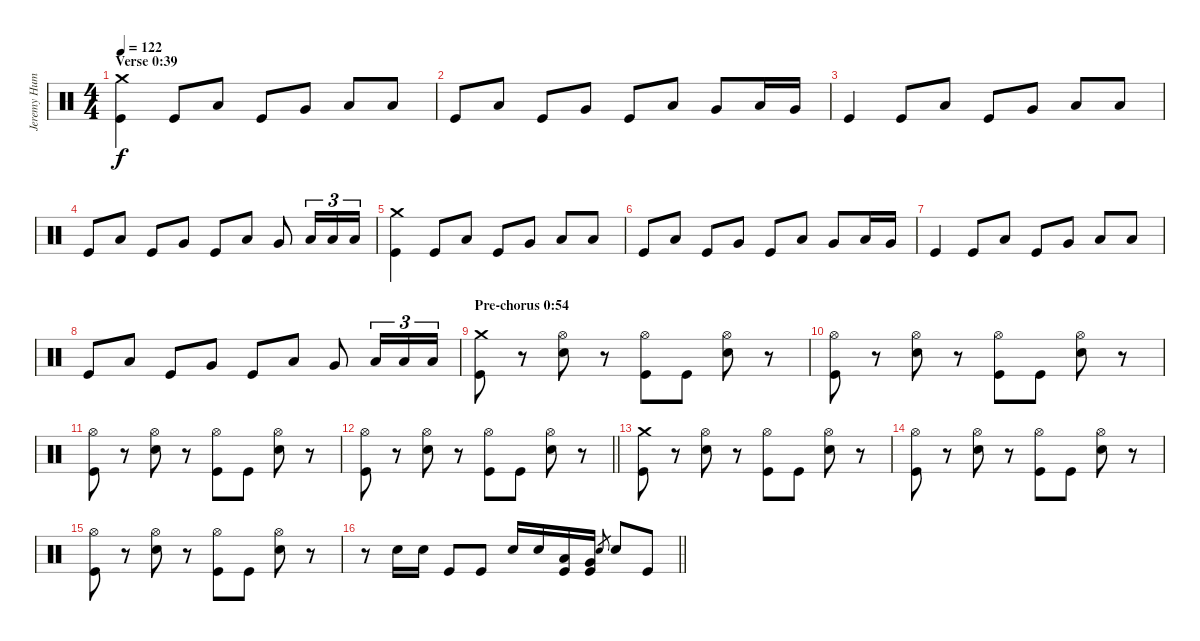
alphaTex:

\track ("Jeremy Hummel Drums]" "Jeremy Hum") {instrument percussion}
\staff {score}
\articulation defaults
\ts (4 4)
\section ("" "Verse 0:39")
\tempo 122
\clef neutral
\ks c
("Crash medium (hit)" "Kick (hit)").4{dy f} "Kick (hit)".8 "Low Tom (hit)".8 "Kick (hit)".8 "Very Low Tom (hit)".8 "Low Floor Tom (hit)".8 "Low Tom (hit)".8 |
"Kick (hit)".8 "Low Tom (hit)".8 "Kick (hit)".8 "Very Low Tom (hit)".8 "Kick (hit)".8 "Low Floor Tom (hit)".8 "Very Low Tom (hit)".8 "Low Tom (hit)".16 "Very Low Tom (hit)".16 |
"Kick (hit)".4 "Kick (hit)".8 "Low Tom (hit)".8 "Kick (hit)".8 "Very Low Tom (hit)".8 "Low Floor Tom (hit)".8 "Low Tom (hit)".8 |
"Kick (hit)".8 "Low Tom (hit)".8 "Kick (hit)".8 "Very Low Tom (hit)".8 "Kick (hit)".8 "Low Floor Tom (hit)".8 "Very Low Tom (hit)".8 "Low Tom (hit)".16{tu (3 2)} "Low Tom (hit)".16{tu (3 2)} "Low Tom (hit)".16{tu (3 2)} |
("Crash medium (hit)" "Kick (hit)").4 "Kick (hit)".8 "Low Tom (hit)".8 "Kick (hit)".8 "Very Low Tom (hit)".8 "Low Floor Tom (hit)".8 "Low Tom (hit)".8 |
"Kick (hit)".8 "Low Tom (hit)".8 "Kick (hit)".8 "Very Low Tom (hit)".8 "Kick (hit)".8 "Low Floor Tom (hit)".8 "Very Low Tom (hit)".8 "Low Tom (hit)".16 "Very Low Tom (hit)".16 |
"Kick (hit)".4 "Kick (hit)".8 "Low Tom (hit)".8 "Kick (hit)".8 "Very Low Tom (hit)".8 "Low Floor Tom (hit)".8 "Low Tom (hit)".8 |
"Kick (hit)".8 "Low Tom (hit)".8 "Kick (hit)".8 "Very Low Tom (hit)".8 "Kick (hit)".8 "Low Floor Tom (hit)".8 "Very Low Tom (hit)".8 "Low Tom (hit)".16{tu (3 2)} "Low Tom (hit)".16{tu (3 2)} "Low Tom (hit)".16{tu (3 2)} |
\section ("" "Pre-chorus 0:54")
("Crash medium (hit)" "Kick (hit)").8 r.8 ("Hi-Hat (open)" "Electric Snare (hit)").8 r.8 ("Hi-Hat (open)" "Kick (hit)").8 "Kick (hit)".8 ("Hi-Hat (open)" "Electric Snare (hit)").8 r.8 |
("Hi-Hat (open)" "Kick (hit)").8 r.8 ("Hi-Hat (open)" "Electric Snare (hit)").8 r.8 ("Hi-Hat (open)" "Kick (hit)").8 "Kick (hit)".8 ("Hi-Hat (open)" "Electric Snare (hit)").8 r.8 |
("Hi-Hat (open)" "Kick (hit)").8 r.8 ("Hi-Hat (open)" "Electric Snare (hit)").8 r.8 ("Hi-Hat (open)" "Kick (hit)").8 "Kick (hit)".8 ("Hi-Hat (open)" "Electric Snare (hit)").8 r.8 |
\barLineRight lightlight
("Hi-Hat (open)" "Kick (hit)").8 r.8 ("Hi-Hat (open)" "Electric Snare (hit)").8 r.8 ("Hi-Hat (open)" "Kick (hit)").8 "Kick (hit)".8 ("Hi-Hat (open)" "Electric Snare (hit)").8 r.8 |
("Crash medium (hit)" "Kick (hit)").8 r.8 ("Hi-Hat (open)" "Electric Snare (hit)").8 r.8 ("Hi-Hat (open)" "Kick (hit)").8 "Kick (hit)".8 ("Hi-Hat (open)" "Electric Snare (hit)").8 r.8 |
("Hi-Hat (open)" "Kick (hit)").8 r.8 ("Hi-Hat (open)" "Electric Snare (hit)").8 r.8 ("Hi-Hat (open)" "Kick (hit)").8 "Kick (hit)".8 ("Hi-Hat (open)" "Electric Snare (hit)").8 r.8 |
("Hi-Hat (open)" "Kick (hit)").8 r.8 ("Hi-Hat (open)" "Electric Snare (hit)").8 r.8 ("Hi-Hat (open)" "Kick (hit)").8 "Kick (hit)".8 ("Hi-Hat (open)" "Electric Snare (hit)").8 r.8 |
\barLineRight lightlight
r.8 "Electric Snare (hit)".16 "Electric Snare (hit)".16 "Kick (hit)".8 "Kick (hit)".8 "Electric Snare (hit)".16 "Electric Snare (hit)".16 ("Low Tom (hit)" "Kick (hit)").16 ("Very Low Tom (hit)" "Kick (hit)").16 "Electric Snare (hit)".8{gr} "Electric Snare (hit)".8 "Kick (hit)".8
